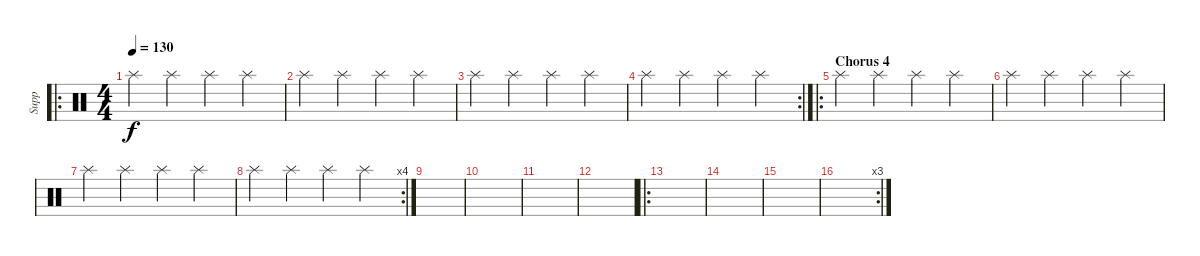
\track ("Supp" "Supp") {instrument percussion}
\staff {score}
\articulation defaults
\ro
\ts (4 4)
\tempo 130
\clef neutral
\ks c "Splash (hit)".4{dy f} "Splash (hit)".4 "Splash (hit)".4 "Splash (hit)".4
|
"Splash (hit)".4 "Splash (hit)".4 "Splash (hit)".4 "Splash (hit)".4 |
"Splash (hit)".4 "Splash (hit)".4 "Splash (hit)".4 "Splash (hit)".4 |
\rc 2 "Splash (hit)".4 "Splash (hit)".4 "Splash (hit)".4 "Splash (hit)".4
|
\ro
\section ("" "Chorus 4")
"Splash (hit)".4 "Splash (hit)".4 "Splash (hit)".4 "Splash (hit)".4 |
"Splash (hit)".4 "Splash (hit)".4 "Splash (hit)".4 "Splash (hit)".4 |
"Splash (hit)".4 "Splash (hit)".4 "Splash (hit)".4 "Splash (hit)".4 |
\rc 4 "Splash (hit)".4 "Splash (hit)".4 "Splash (hit)".4 "Splash (hit)".4
|
|
|
|
|
\ro
|
|
|
\rc 3
